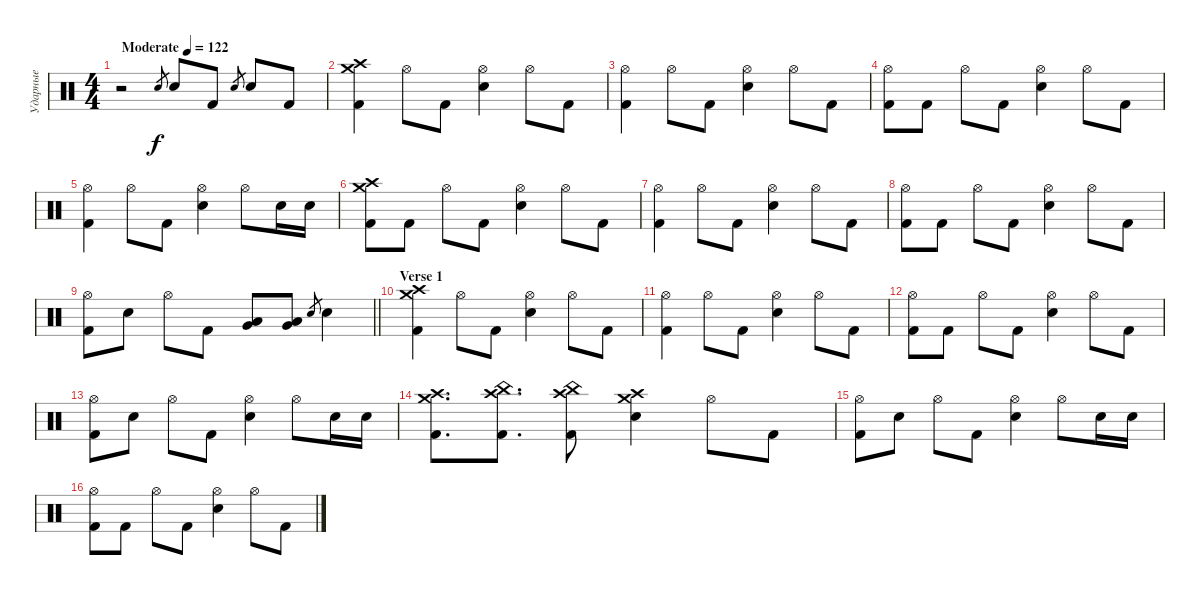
\track ("Ударные" "Ударные") {instrument percussion}
\staff {score}
\articulation defaults
\ts (4 4)
\tempo (122 "Moderate")
\clef neutral
\ks c
r.2{dy f} "Electric Snare (hit)".8{gr} "Electric Snare (hit)".8 "Kick (hit) 2".8 "Electric Snare (hit)".8{gr} "Electric Snare (hit)".8 "Kick (hit) 2".8 |
("Crash high (hit)" "Crash medium (hit)" "Kick (hit) 2").4 "Hi-Hat (open)".8 "Kick (hit) 2".8 ("Hi-Hat (open)" "Electric Snare (hit)").4 "Hi-Hat (open)".8 "Kick (hit) 2".8 |
("Hi-Hat (open)" "Kick (hit) 2").4 "Hi-Hat (open)".8 "Kick (hit) 2".8 ("Hi-Hat (open)" "Electric Snare (hit)").4 "Hi-Hat (open)".8 "Kick (hit) 2".8 |
("Hi-Hat (open)" "Kick (hit) 2").8 "Kick (hit) 2".8 "Hi-Hat (open)".8 "Kick (hit) 2".8 ("Hi-Hat (open)" "Electric Snare (hit)").4 "Hi-Hat (open)".8 "Kick (hit) 2".8 |
("Hi-Hat (open)" "Kick (hit) 2").4 "Hi-Hat (open)".8 "Kick (hit) 2".8 ("Hi-Hat (open)" "Electric Snare (hit)").4 "Hi-Hat (open)".8 "Electric Snare (hit)".16 "Electric Snare (hit)".16 |
("Crash high (hit)" "Crash medium (hit)" "Kick (hit) 2").8 "Kick (hit) 2".8 "Hi-Hat (open)".8 "Kick (hit) 2".8 ("Hi-Hat (open)" "Electric Snare (hit)").4 "Hi-Hat (open)".8 "Kick (hit) 2".8 |
("Hi-Hat (open)" "Kick (hit) 2").4 "Hi-Hat (open)".8 "Kick (hit) 2".8 ("Hi-Hat (open)" "Electric Snare (hit)").4 "Hi-Hat (open)".8 "Kick (hit) 2".8 |
("Hi-Hat (open)" "Kick (hit) 2").8 "Kick (hit) 2".8 "Hi-Hat (open)".8 "Kick (hit) 2".8 ("Hi-Hat (open)" "Electric Snare (hit)").4 "Hi-Hat (open)".8 "Kick (hit) 2".8 |
\barLineRight lightlight
("Hi-Hat (open)" "Kick (hit) 2").8 "Electric Snare (hit)".8 "Hi-Hat (open)".8 "Kick (hit) 2".8 ("Very Low Tom (hit)" "Low Tom (hit)").8 ("Very Low Tom (hit)" "Low Tom (hit)").8 "Electric Snare (hit)".8{gr} "Electric Snare (hit)".4 |
\section ("" "Verse 1")
("Crash high (hit)" "Crash medium (hit)" "Kick (hit) 2").4 "Hi-Hat (open)".8 "Kick (hit) 2".8 ("Hi-Hat (open)" "Electric Snare (hit)").4 "Hi-Hat (open)".8 "Kick (hit) 2".8 |
("Hi-Hat (open)" "Kick (hit) 2").4 "Hi-Hat (open)".8 "Kick (hit) 2".8 ("Hi-Hat (open)" "Electric Snare (hit)").4 "Hi-Hat (open)".8 "Kick (hit) 2".8 |
("Hi-Hat (open)" "Kick (hit) 2").8 "Kick (hit) 2".8 "Hi-Hat (open)".8 "Kick (hit) 2".8 ("Hi-Hat (open)" "Electric Snare (hit)").4 "Hi-Hat (open)".8 "Kick (hit) 2".8 |
("Hi-Hat (open)" "Kick (hit) 2").8 "Electric Snare (hit)".8 "Hi-Hat (open)".8 "Kick (hit) 2".8 ("Hi-Hat (open)" "Electric Snare (hit)").4 "Hi-Hat (open)".8 "Electric Snare (hit)".16 "Electric Snare (hit)".16 |
("Crash high (hit)" "Crash medium (hit)" "Kick (hit) 2").8{d} ("Kick (hit) 2" "China (hit)" "Crash high (hit)").8{d} ("Kick (hit) 2" "China (hit)" "Crash high (hit)").8 ("Crash high (hit)" "Electric Snare (hit)" "Crash medium (hit)").4 "Hi-Hat (open)".8 "Kick (hit) 2".8 |
("Hi-Hat (open)" "Kick (hit) 2").8 "Electric Snare (hit)".8 "Hi-Hat (open)".8 "Kick (hit) 2".8 ("Hi-Hat (open)" "Electric Snare (hit)").4 "Hi-Hat (open)".8 "Electric Snare (hit)".16 "Electric Snare (hit)".16 |
("Hi-Hat (open)" "Kick (hit) 2").8 "Kick (hit) 2".8 "Hi-Hat (open)".8 "Kick (hit) 2".8 ("Hi-Hat (open)" "Electric Snare (hit)").4 "Hi-Hat (open)".8 "Kick (hit) 2".8
